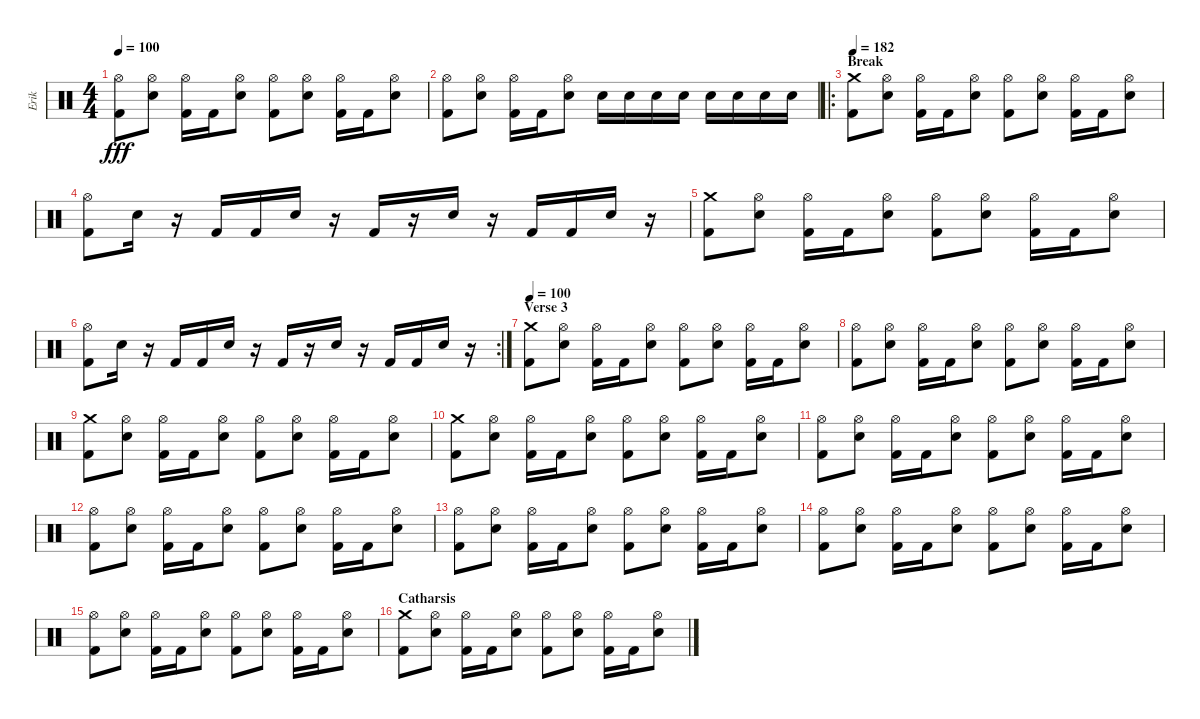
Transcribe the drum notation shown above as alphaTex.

\track ("Erik" "Erik") {instrument percussion}
\staff {score}
\articulation defaults
\ts (4 4)
\tempo 100
\clef neutral
\ks c
("Kick (hit) 2" "Hi-Hat (open)").8{dy fff} ("Electric Snare (hit)" "Hi-Hat (open)").8 ("Kick (hit) 2" "Hi-Hat (open)").16 "Kick (hit) 2".16 ("Electric Snare (hit)" "Hi-Hat (open)").8 ("Kick (hit) 2" "Hi-Hat (open)").8 ("Electric Snare (hit)" "Hi-Hat (open)").8 ("Kick (hit) 2" "Hi-Hat (open)").16 "Kick (hit) 2".16 ("Electric Snare (hit)" "Hi-Hat (open)").8 |
("Kick (hit) 2" "Hi-Hat (open)").8 ("Electric Snare (hit)" "Hi-Hat (open)").8 ("Kick (hit) 2" "Hi-Hat (open)").16 "Kick (hit) 2".16 ("Electric Snare (hit)" "Hi-Hat (open)").8 "Electric Snare (hit)".16 "Electric Snare (hit)".16 "Electric Snare (hit)".16 "Electric Snare (hit)".16 "Electric Snare (hit)".16 "Electric Snare (hit)".16 "Electric Snare (hit)".16 "Electric Snare (hit)".16 |
\ro
\section ("" "Break")
\tempo 182
("Kick (hit) 2" "Crash medium (hit)").8 ("Electric Snare (hit)" "Hi-Hat (open)").8 ("Kick (hit) 2" "Hi-Hat (open)").16 "Kick (hit) 2".16 ("Electric Snare (hit)" "Hi-Hat (open)").8 ("Kick (hit) 2" "Hi-Hat (open)").8 ("Electric Snare (hit)" "Hi-Hat (open)").8 ("Kick (hit) 2" "Hi-Hat (open)").16 "Kick (hit) 2".16 ("Electric Snare (hit)" "Hi-Hat (open)").8 |
("Kick (hit) 2" "Hi-Hat (open)").8 "Electric Snare (hit)".16 r.16 "Kick (hit) 2".16 "Kick (hit) 2".16 "Electric Snare (hit)".16 r.16 "Kick (hit) 2".16 r.16 "Electric Snare (hit)".16 r.16 "Kick (hit) 2".16 "Kick (hit) 2".16 "Electric Snare (hit)".16 r.16 |
("Kick (hit) 2" "Crash medium (hit)").8 ("Electric Snare (hit)" "Hi-Hat (open)").8 ("Kick (hit) 2" "Hi-Hat (open)").16 "Kick (hit) 2".16 ("Electric Snare (hit)" "Hi-Hat (open)").8 ("Kick (hit) 2" "Hi-Hat (open)").8 ("Electric Snare (hit)" "Hi-Hat (open)").8 ("Kick (hit) 2" "Hi-Hat (open)").16 "Kick (hit) 2".16 ("Electric Snare (hit)" "Hi-Hat (open)").8 |
\rc 2
("Kick (hit) 2" "Hi-Hat (open)").8 "Electric Snare (hit)".16 r.16 "Kick (hit) 2".16 "Kick (hit) 2".16 "Electric Snare (hit)".16 r.16 "Kick (hit) 2".16 r.16 "Electric Snare (hit)".16 r.16 "Kick (hit) 2".16 "Kick (hit) 2".16 "Electric Snare (hit)".16 r.16 |
\section ("" "Verse 3")
\tempo 100
("Kick (hit) 2" "Crash medium (hit)").8 ("Electric Snare (hit)" "Hi-Hat (open)").8 ("Kick (hit) 2" "Hi-Hat (open)").16 "Kick (hit) 2".16 ("Electric Snare (hit)" "Hi-Hat (open)").8 ("Kick (hit) 2" "Hi-Hat (open)").8 ("Electric Snare (hit)" "Hi-Hat (open)").8 ("Kick (hit) 2" "Hi-Hat (open)").16 "Kick (hit) 2".16 ("Electric Snare (hit)" "Hi-Hat (open)").8 |
("Kick (hit) 2" "Hi-Hat (open)").8 ("Electric Snare (hit)" "Hi-Hat (open)").8 ("Kick (hit) 2" "Hi-Hat (open)").16 "Kick (hit) 2".16 ("Electric Snare (hit)" "Hi-Hat (open)").8 ("Kick (hit) 2" "Hi-Hat (open)").8 ("Electric Snare (hit)" "Hi-Hat (open)").8 ("Kick (hit) 2" "Hi-Hat (open)").16 "Kick (hit) 2".16 ("Electric Snare (hit)" "Hi-Hat (open)").8 |
("Kick (hit) 2" "Crash medium (hit)").8 ("Electric Snare (hit)" "Hi-Hat (open)").8 ("Kick (hit) 2" "Hi-Hat (open)").16 "Kick (hit) 2".16 ("Electric Snare (hit)" "Hi-Hat (open)").8 ("Kick (hit) 2" "Hi-Hat (open)").8 ("Electric Snare (hit)" "Hi-Hat (open)").8 ("Kick (hit) 2" "Hi-Hat (open)").16 "Kick (hit) 2".16 ("Electric Snare (hit)" "Hi-Hat (open)").8 |
("Kick (hit) 2" "Crash medium (hit)").8 ("Electric Snare (hit)" "Hi-Hat (open)").8 ("Kick (hit) 2" "Hi-Hat (open)").16 "Kick (hit) 2".16 ("Electric Snare (hit)" "Hi-Hat (open)").8 ("Kick (hit) 2" "Hi-Hat (open)").8 ("Electric Snare (hit)" "Hi-Hat (open)").8 ("Kick (hit) 2" "Hi-Hat (open)").16 "Kick (hit) 2".16 ("Electric Snare (hit)" "Hi-Hat (open)").8 |
("Kick (hit) 2" "Hi-Hat (open)").8 ("Electric Snare (hit)" "Hi-Hat (open)").8 ("Kick (hit) 2" "Hi-Hat (open)").16 "Kick (hit) 2".16 ("Electric Snare (hit)" "Hi-Hat (open)").8 ("Kick (hit) 2" "Hi-Hat (open)").8 ("Electric Snare (hit)" "Hi-Hat (open)").8 ("Kick (hit) 2" "Hi-Hat (open)").16 "Kick (hit) 2".16 ("Electric Snare (hit)" "Hi-Hat (open)").8 |
("Kick (hit) 2" "Hi-Hat (open)").8 ("Electric Snare (hit)" "Hi-Hat (open)").8 ("Kick (hit) 2" "Hi-Hat (open)").16 "Kick (hit) 2".16 ("Electric Snare (hit)" "Hi-Hat (open)").8 ("Kick (hit) 2" "Hi-Hat (open)").8 ("Electric Snare (hit)" "Hi-Hat (open)").8 ("Kick (hit) 2" "Hi-Hat (open)").16 "Kick (hit) 2".16 ("Electric Snare (hit)" "Hi-Hat (open)").8 |
("Kick (hit) 2" "Hi-Hat (open)").8 ("Electric Snare (hit)" "Hi-Hat (open)").8 ("Kick (hit) 2" "Hi-Hat (open)").16 "Kick (hit) 2".16 ("Electric Snare (hit)" "Hi-Hat (open)").8 ("Kick (hit) 2" "Hi-Hat (open)").8 ("Electric Snare (hit)" "Hi-Hat (open)").8 ("Kick (hit) 2" "Hi-Hat (open)").16 "Kick (hit) 2".16 ("Electric Snare (hit)" "Hi-Hat (open)").8 |
("Kick (hit) 2" "Hi-Hat (open)").8 ("Electric Snare (hit)" "Hi-Hat (open)").8 ("Kick (hit) 2" "Hi-Hat (open)").16 "Kick (hit) 2".16 ("Electric Snare (hit)" "Hi-Hat (open)").8 ("Kick (hit) 2" "Hi-Hat (open)").8 ("Electric Snare (hit)" "Hi-Hat (open)").8 ("Kick (hit) 2" "Hi-Hat (open)").16 "Kick (hit) 2".16 ("Electric Snare (hit)" "Hi-Hat (open)").8 |
("Kick (hit) 2" "Hi-Hat (open)").8 ("Electric Snare (hit)" "Hi-Hat (open)").8 ("Kick (hit) 2" "Hi-Hat (open)").16 "Kick (hit) 2".16 ("Electric Snare (hit)" "Hi-Hat (open)").8 ("Kick (hit) 2" "Hi-Hat (open)").8 ("Electric Snare (hit)" "Hi-Hat (open)").8 ("Kick (hit) 2" "Hi-Hat (open)").16 "Kick (hit) 2".16 ("Electric Snare (hit)" "Hi-Hat (open)").8 |
\section ("" "Catharsis")
("Kick (hit) 2" "Crash medium (hit)").8 ("Electric Snare (hit)" "Hi-Hat (open)").8 ("Kick (hit) 2" "Hi-Hat (open)").16 "Kick (hit) 2".16 ("Electric Snare (hit)" "Hi-Hat (open)").8 ("Kick (hit) 2" "Hi-Hat (open)").8 ("Electric Snare (hit)" "Hi-Hat (open)").8 ("Kick (hit) 2" "Hi-Hat (open)").16 "Kick (hit) 2".16 ("Electric Snare (hit)" "Hi-Hat (open)").8
